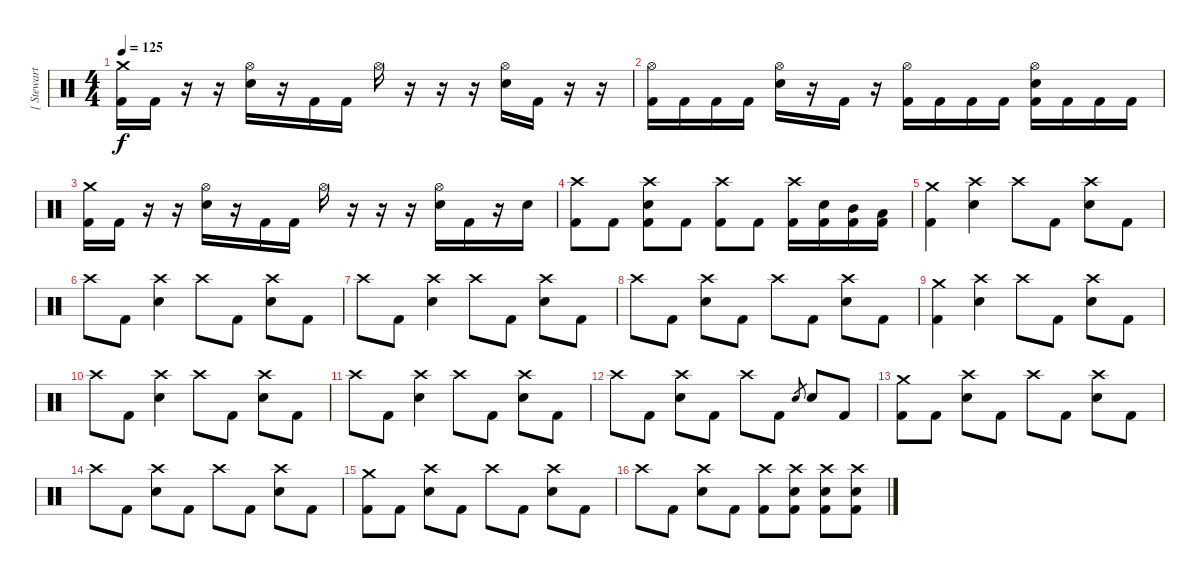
\track ("[ Stewart ]" "[ Stewart ") {instrument percussion}
\staff {score}
\articulation defaults
\ts (4 4)
\tempo 125
\clef neutral
\ks c
("Kick (hit) 2" "Crash medium (hit)").16{dy f} "Kick (hit) 2".16 r.16 r.16 ("Electric Snare (hit)" "Hi-Hat (open)").16 r.16 "Kick (hit) 2".16 "Kick (hit) 2".16 "Hi-Hat (open)".16 r.16 r.16 r.16 ("Electric Snare (hit)" "Hi-Hat (open)").16 "Kick (hit) 2".16 r.16 r.16 |
("Kick (hit) 2" "Hi-Hat (open)").16 "Kick (hit) 2".16 "Kick (hit) 2".16 "Kick (hit) 2".16 ("Electric Snare (hit)" "Hi-Hat (open)").16 r.16 "Kick (hit) 2".16 r.16 ("Kick (hit) 2" "Hi-Hat (open)").16 "Kick (hit) 2".16 "Kick (hit) 2".16 "Kick (hit) 2".16 ("Kick (hit) 2" "Electric Snare (hit)" "Hi-Hat (open)").16 "Kick (hit) 2".16 "Kick (hit) 2".16 "Kick (hit) 2".16 |
("Kick (hit) 2" "Crash medium (hit)").16 "Kick (hit) 2".16 r.16 r.16 ("Electric Snare (hit)" "Hi-Hat (open)").16 r.16 "Kick (hit) 2".16 "Kick (hit) 2".16 "Hi-Hat (open)".16 r.16 r.16 r.16 ("Electric Snare (hit)" "Hi-Hat (open)").16 "Kick (hit) 2".16 r.16 "Electric Snare (hit)".16 |
("Kick (hit) 2" "Crash high (hit)").8 "Kick (hit) 2".8 ("Kick (hit) 2" "Electric Snare (hit)" "Crash high (hit)").8 "Kick (hit) 2".8 ("Kick (hit) 2" "Crash high (hit)").8 "Kick (hit) 2".8 ("Kick (hit) 2" "Crash high (hit)").16 ("Electric Snare (hit)" "Kick (hit) 2").16 ("Mid Tom (hit)" "Kick (hit) 2").16 ("Low Tom (hit)" "Kick (hit) 2").16 |
("Kick (hit) 2" "Crash medium (hit)").4 ("Electric Snare (hit)" "Crash high (hit)").4 "Crash high (hit)".8 "Kick (hit) 2".8 ("Electric Snare (hit)" "Crash high (hit)").8 "Kick (hit) 2".8 |
"Crash high (hit)".8 "Kick (hit) 2".8 ("Electric Snare (hit)" "Crash high (hit)").4 "Crash high (hit)".8 "Kick (hit) 2".8 ("Electric Snare (hit)" "Crash high (hit)").8 "Kick (hit) 2".8 |
"Crash high (hit)".8 "Kick (hit) 2".8 ("Electric Snare (hit)" "Crash high (hit)").4 "Crash high (hit)".8 "Kick (hit) 2".8 ("Electric Snare (hit)" "Crash high (hit)").8 "Kick (hit) 2".8 |
"Crash high (hit)".8 "Kick (hit) 2".8 ("Electric Snare (hit)" "Crash high (hit)").8 "Kick (hit) 2".8 "Crash high (hit)".8 "Kick (hit) 2".8 ("Electric Snare (hit)" "Crash high (hit)").8 "Kick (hit) 2".8 |
("Kick (hit) 2" "Crash medium (hit)").4 ("Electric Snare (hit)" "Crash high (hit)").4 "Crash high (hit)".8 "Kick (hit) 2".8 ("Electric Snare (hit)" "Crash high (hit)").8 "Kick (hit) 2".8 |
"Crash high (hit)".8 "Kick (hit) 2".8 ("Electric Snare (hit)" "Crash high (hit)").4 "Crash high (hit)".8 "Kick (hit) 2".8 ("Electric Snare (hit)" "Crash high (hit)").8 "Kick (hit) 2".8 |
"Crash high (hit)".8 "Kick (hit) 2".8 ("Electric Snare (hit)" "Crash high (hit)").4 "Crash high (hit)".8 "Kick (hit) 2".8 ("Electric Snare (hit)" "Crash high (hit)").8 "Kick (hit) 2".8 |
"Crash high (hit)".8 "Kick (hit) 2".8 ("Electric Snare (hit)" "Crash high (hit)").8 "Kick (hit) 2".8 "Crash high (hit)".8 "Kick (hit) 2".8 "Electric Snare (hit)".8{gr} "Electric Snare (hit)".8 "Kick (hit) 2".8 |
("Kick (hit) 2" "Crash medium (hit)").8 "Kick (hit) 2".8 ("Electric Snare (hit)" "Crash high (hit)").8 "Kick (hit) 2".8 "Crash high (hit)".8 "Kick (hit) 2".8 ("Electric Snare (hit)" "Crash high (hit)").8 "Kick (hit) 2".8 |
"Crash high (hit)".8 "Kick (hit) 2".8 ("Electric Snare (hit)" "Crash high (hit)").8 "Kick (hit) 2".8 "Crash high (hit)".8 "Kick (hit) 2".8 ("Electric Snare (hit)" "Crash high (hit)").8 "Kick (hit) 2".8 |
("Kick (hit) 2" "Crash medium (hit)").8 "Kick (hit) 2".8 ("Electric Snare (hit)" "Crash high (hit)").8 "Kick (hit) 2".8 "Crash high (hit)".8 "Kick (hit) 2".8 ("Electric Snare (hit)" "Crash high (hit)").8 "Kick (hit) 2".8 |
"Crash high (hit)".8 "Kick (hit) 2".8 ("Electric Snare (hit)" "Crash high (hit)").8 "Kick (hit) 2".8 ("Kick (hit) 2" "Crash high (hit)").8 ("Kick (hit) 2" "Electric Snare (hit)" "Crash high (hit)").8 ("Kick (hit) 2" "Electric Snare (hit)" "Crash high (hit)").8 ("Kick (hit) 2" "Electric Snare (hit)" "Crash high (hit)").8
